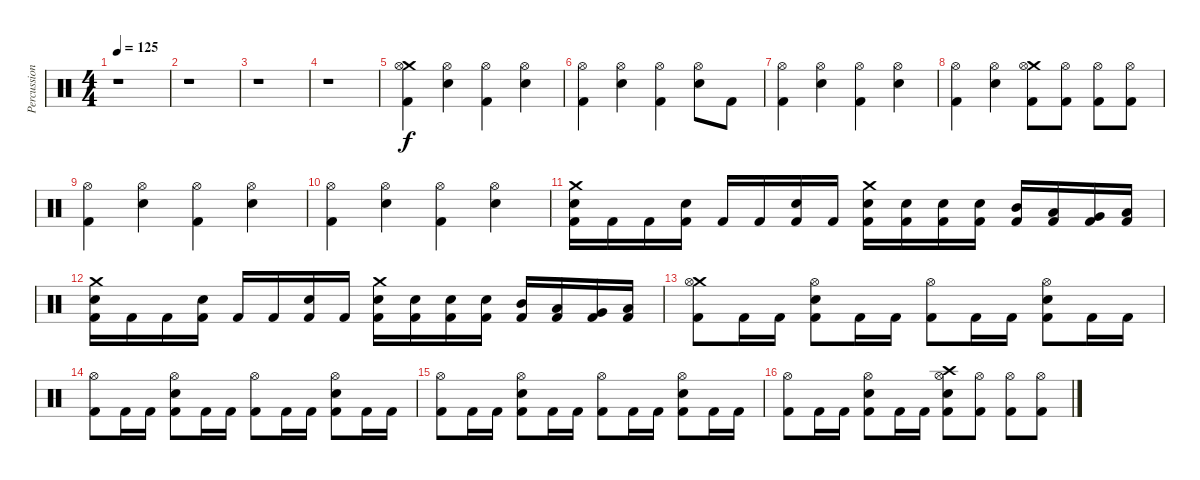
\track ("Percussion" "Percussion") {instrument percussion}
\staff {score}
\articulation defaults
\ts (4 4)
\tempo 125
\clef neutral
\ks c
r.1{dy f} |
r.1 |
r.1 |
r.1 |
("Crash medium (hit)" "Hi-Hat (open)" "Kick (hit) 2").4 ("Hi-Hat (open)" "Electric Snare (hit)").4 ("Hi-Hat (open)" "Kick (hit) 2").4 ("Hi-Hat (open)" "Electric Snare (hit)").4 |
("Hi-Hat (open)" "Kick (hit) 2").4 ("Hi-Hat (open)" "Electric Snare (hit)").4 ("Hi-Hat (open)" "Kick (hit) 2").4 ("Hi-Hat (open)" "Electric Snare (hit)").8 "Kick (hit) 2".8 |
("Hi-Hat (open)" "Kick (hit) 2").4 ("Hi-Hat (open)" "Electric Snare (hit)").4 ("Hi-Hat (open)" "Kick (hit) 2").4 ("Hi-Hat (open)" "Electric Snare (hit)").4 |
("Hi-Hat (open)" "Kick (hit) 2").4 ("Hi-Hat (open)" "Electric Snare (hit)").4 ("Crash medium (hit)" "Hi-Hat (open)" "Kick (hit) 2").8 ("Hi-Hat (open)" "Kick (hit) 2").8 ("Hi-Hat (open)" "Kick (hit) 2").8 ("Hi-Hat (open)" "Kick (hit) 2").8 |
("Hi-Hat (open)" "Kick (hit) 2").4 ("Hi-Hat (open)" "Electric Snare (hit)").4 ("Hi-Hat (open)" "Kick (hit) 2").4 ("Hi-Hat (open)" "Electric Snare (hit)").4 |
("Hi-Hat (open)" "Kick (hit) 2").4 ("Hi-Hat (open)" "Electric Snare (hit)").4 ("Hi-Hat (open)" "Kick (hit) 2").4 ("Hi-Hat (open)" "Electric Snare (hit)").4 |
("Crash medium (hit)" "Electric Snare (hit)" "Kick (hit) 2").16 "Kick (hit) 2".16 "Kick (hit) 2".16 ("Electric Snare (hit)" "Kick (hit) 2").16 "Kick (hit) 2".16 "Kick (hit) 2".16 ("Electric Snare (hit)" "Kick (hit) 2").16 "Kick (hit) 2".16 ("Crash medium (hit)" "Electric Snare (hit)" "Kick (hit) 2").16 ("Electric Snare (hit)" "Kick (hit) 2").16 ("Electric Snare (hit)" "Kick (hit) 2").16 ("Electric Snare (hit)" "Kick (hit) 2").16 ("Mid Tom (hit)" "Kick (hit) 2").16 ("Low Tom (hit)" "Kick (hit) 2").16 ("Very Low Tom (hit)" "Kick (hit) 2").16 ("Low Floor Tom (hit)" "Kick (hit) 2").16 |
("Crash medium (hit)" "Electric Snare (hit)" "Kick (hit) 2").16 "Kick (hit) 2".16 "Kick (hit) 2".16 ("Electric Snare (hit)" "Kick (hit) 2").16 "Kick (hit) 2".16 "Kick (hit) 2".16 ("Electric Snare (hit)" "Kick (hit) 2").16 "Kick (hit) 2".16 ("Crash medium (hit)" "Electric Snare (hit)" "Kick (hit) 2").16 ("Electric Snare (hit)" "Kick (hit) 2").16 ("Electric Snare (hit)" "Kick (hit) 2").16 ("Electric Snare (hit)" "Kick (hit) 2").16 ("Mid Tom (hit)" "Kick (hit) 2").16 ("Low Tom (hit)" "Kick (hit) 2").16 ("Very Low Tom (hit)" "Kick (hit) 2").16 ("Low Floor Tom (hit)" "Kick (hit) 2").16 |
("Crash medium (hit)" "Hi-Hat (open)" "Kick (hit) 2").8 "Kick (hit) 2".16 "Kick (hit) 2".16 ("Hi-Hat (open)" "Electric Snare (hit)" "Kick (hit) 2").8 "Kick (hit) 2".16 "Kick (hit) 2".16 ("Hi-Hat (open)" "Kick (hit) 2").8 "Kick (hit) 2".16 "Kick (hit) 2".16 ("Hi-Hat (open)" "Electric Snare (hit)" "Kick (hit) 2").8 "Kick (hit) 2".16 "Kick (hit) 2".16 |
("Hi-Hat (open)" "Kick (hit) 2").8 "Kick (hit) 2".16 "Kick (hit) 2".16 ("Hi-Hat (open)" "Electric Snare (hit)" "Kick (hit) 2").8 "Kick (hit) 2".16 "Kick (hit) 2".16 ("Hi-Hat (open)" "Kick (hit) 2").8 "Kick (hit) 2".16 "Kick (hit) 2".16 ("Hi-Hat (open)" "Electric Snare (hit)" "Kick (hit) 2").8 "Kick (hit) 2".16 "Kick (hit) 2".16 |
("Hi-Hat (open)" "Kick (hit) 2").8 "Kick (hit) 2".16 "Kick (hit) 2".16 ("Hi-Hat (open)" "Electric Snare (hit)" "Kick (hit) 2").8 "Kick (hit) 2".16 "Kick (hit) 2".16 ("Hi-Hat (open)" "Kick (hit) 2").8 "Kick (hit) 2".16 "Kick (hit) 2".16 ("Hi-Hat (open)" "Electric Snare (hit)" "Kick (hit) 2").8 "Kick (hit) 2".16 "Kick (hit) 2".16 |
("Hi-Hat (open)" "Kick (hit) 2").8 "Kick (hit) 2".16 "Kick (hit) 2".16 ("Hi-Hat (open)" "Electric Snare (hit)" "Kick (hit) 2").8 "Kick (hit) 2".16 "Kick (hit) 2".16 ("Crash high (hit)" "Hi-Hat (open)" "Electric Snare (hit)" "Kick (hit) 2").8 ("Hi-Hat (open)" "Kick (hit) 2").8 ("Hi-Hat (open)" "Kick (hit) 2").8 ("Hi-Hat (open)" "Kick (hit) 2").8
